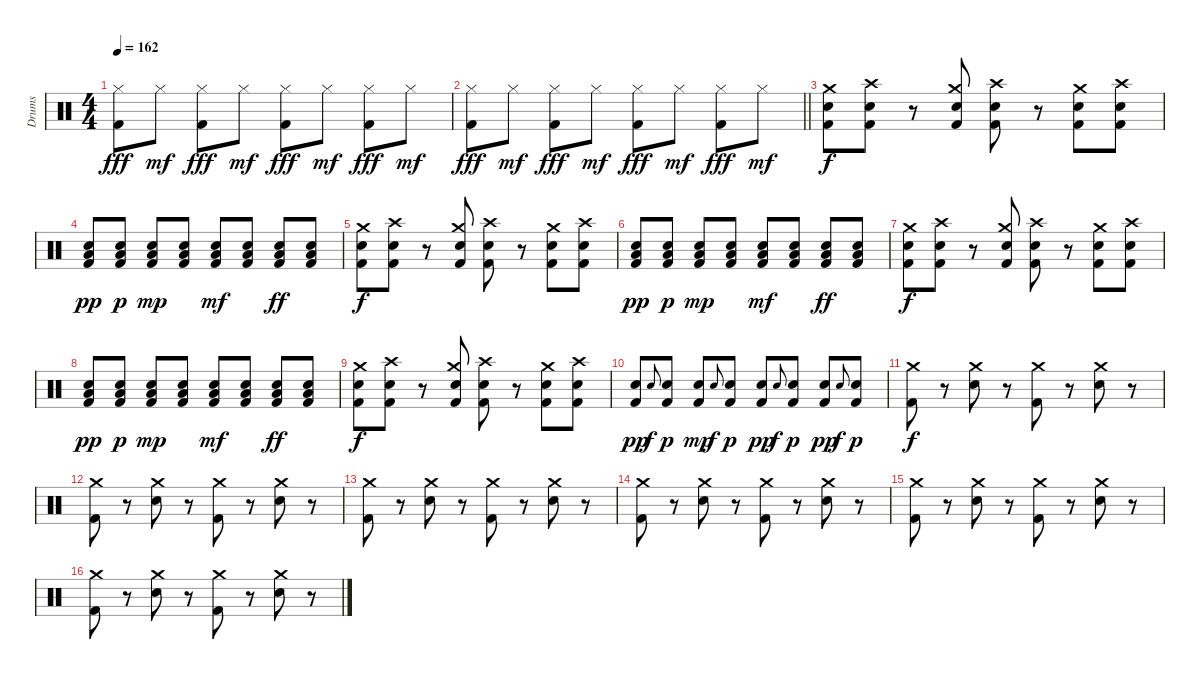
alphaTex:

\track ("Drums" "Drums") {instrument percussion}
\staff {score}
\articulation defaults
\ts (4 4)
\tempo 162
\clef neutral
\ks c
("Hi-Hat (closed)" "Kick (hit) 2").8{dy fff} "Hi-Hat (closed)".8{dy mf} ("Hi-Hat (closed)" "Kick (hit) 2").8{dy fff} "Hi-Hat (closed)".8{dy mf} ("Hi-Hat (closed)" "Kick (hit) 2").8{dy fff} "Hi-Hat (closed)".8{dy mf} ("Hi-Hat (closed)" "Kick (hit) 2").8{dy fff} "Hi-Hat (closed)".8{dy mf} |
\barLineRight lightlight
("Hi-Hat (closed)" "Kick (hit) 2").8{dy fff} "Hi-Hat (closed)".8{dy mf} ("Hi-Hat (closed)" "Kick (hit) 2").8{dy fff} "Hi-Hat (closed)".8{dy mf} ("Hi-Hat (closed)" "Kick (hit) 2").8{dy fff} "Hi-Hat (closed)".8{dy mf} ("Hi-Hat (closed)" "Kick (hit) 2").8{dy fff} "Hi-Hat (closed)".8{dy mf} |
("Crash medium (hit)" "Snare (hit) 2" "Kick (hit) 2").8{dy f} ("Crash high (hit)" "Snare (hit) 2" "Kick (hit) 2").8 r.8 ("Crash medium (hit)" "Snare (hit) 2" "Kick (hit) 2").8 ("Crash high (hit)" "Snare (hit) 2" "Kick (hit) 2").8 r.8 ("Crash medium (hit)" "Snare (hit) 2" "Kick (hit) 2").8 ("Crash high (hit)" "Snare (hit) 2" "Kick (hit) 2").8 |
("Snare (hit) 2" "Low Floor Tom (hit)" "Kick (hit) 2").8{dy pp} ("Snare (hit) 2" "Low Floor Tom (hit)" "Kick (hit) 2").8{dy p} ("Snare (hit) 2" "Low Floor Tom (hit)" "Kick (hit) 2").8{dy mp} ("Snare (hit) 2" "Low Floor Tom (hit)" "Kick (hit) 2").8 ("Snare (hit) 2" "Low Floor Tom (hit)" "Kick (hit) 2").8{dy mf} ("Snare (hit) 2" "Low Floor Tom (hit)" "Kick (hit) 2").8 ("Snare (hit) 2" "Low Floor Tom (hit)" "Kick (hit) 2").8{dy ff} ("Snare (hit) 2" "Low Floor Tom (hit)" "Kick (hit) 2").8 |
("Crash medium (hit)" "Snare (hit) 2" "Kick (hit) 2").8{dy f} ("Crash high (hit)" "Snare (hit) 2" "Kick (hit) 2").8 r.8 ("Crash medium (hit)" "Snare (hit) 2" "Kick (hit) 2").8 ("Crash high (hit)" "Snare (hit) 2" "Kick (hit) 2").8 r.8 ("Crash medium (hit)" "Snare (hit) 2" "Kick (hit) 2").8 ("Crash high (hit)" "Snare (hit) 2" "Kick (hit) 2").8 |
("Snare (hit) 2" "Low Floor Tom (hit)" "Kick (hit) 2").8{dy pp} ("Snare (hit) 2" "Low Floor Tom (hit)" "Kick (hit) 2").8{dy p} ("Snare (hit) 2" "Low Floor Tom (hit)" "Kick (hit) 2").8{dy mp} ("Snare (hit) 2" "Low Floor Tom (hit)" "Kick (hit) 2").8 ("Snare (hit) 2" "Low Floor Tom (hit)" "Kick (hit) 2").8{dy mf} ("Snare (hit) 2" "Low Floor Tom (hit)" "Kick (hit) 2").8 ("Snare (hit) 2" "Low Floor Tom (hit)" "Kick (hit) 2").8{dy ff} ("Snare (hit) 2" "Low Floor Tom (hit)" "Kick (hit) 2").8 |
("Crash medium (hit)" "Snare (hit) 2" "Kick (hit) 2").8{dy f} ("Crash high (hit)" "Snare (hit) 2" "Kick (hit) 2").8 r.8 ("Crash medium (hit)" "Snare (hit) 2" "Kick (hit) 2").8 ("Crash high (hit)" "Snare (hit) 2" "Kick (hit) 2").8 r.8 ("Crash medium (hit)" "Snare (hit) 2" "Kick (hit) 2").8 ("Crash high (hit)" "Snare (hit) 2" "Kick (hit) 2").8 |
("Snare (hit) 2" "Low Floor Tom (hit)" "Kick (hit) 2").8{dy pp} ("Snare (hit) 2" "Low Floor Tom (hit)" "Kick (hit) 2").8{dy p} ("Snare (hit) 2" "Low Floor Tom (hit)" "Kick (hit) 2").8{dy mp} ("Snare (hit) 2" "Low Floor Tom (hit)" "Kick (hit) 2").8 ("Snare (hit) 2" "Low Floor Tom (hit)" "Kick (hit) 2").8{dy mf} ("Snare (hit) 2" "Low Floor Tom (hit)" "Kick (hit) 2").8 ("Snare (hit) 2" "Low Floor Tom (hit)" "Kick (hit) 2").8{dy ff} ("Snare (hit) 2" "Low Floor Tom (hit)" "Kick (hit) 2").8 |
("Crash medium (hit)" "Snare (hit) 2" "Kick (hit) 2").8{dy f} ("Crash high (hit)" "Snare (hit) 2" "Kick (hit) 2").8 r.8 ("Crash medium (hit)" "Snare (hit) 2" "Kick (hit) 2").8 ("Crash high (hit)" "Snare (hit) 2" "Kick (hit) 2").8 r.8 ("Crash medium (hit)" "Snare (hit) 2" "Kick (hit) 2").8 ("Crash high (hit)" "Snare (hit) 2" "Kick (hit) 2").8 |
("Snare (hit) 2" "Kick (hit) 2").8{dy pp} "Snare (hit) 2".8{gr onbeat dy f} ("Snare (hit) 2" "Kick (hit) 2").8{dy p} ("Snare (hit) 2" "Kick (hit) 2").8{dy mp} "Snare (hit) 2".8{gr onbeat dy f} ("Snare (hit) 2" "Kick (hit) 2").8{dy p} ("Snare (hit) 2" "Kick (hit) 2").8{dy pp} "Snare (hit) 2".8{gr onbeat dy f} ("Snare (hit) 2" "Kick (hit) 2").8{dy p} ("Snare (hit) 2" "Kick (hit) 2").8{dy pp} "Snare (hit) 2".8{gr onbeat dy f} ("Snare (hit) 2" "Kick (hit) 2").8{dy p} |
("Crash medium (hit)" "Kick (hit) 2").8{dy f} r.8 ("Crash medium (hit)" "Electric Snare (hit)").8 r.8 ("Crash medium (hit)" "Kick (hit) 2").8 r.8 ("Crash medium (hit)" "Electric Snare (hit)").8 r.8 |
("Crash medium (hit)" "Kick (hit) 2").8 r.8 ("Crash medium (hit)" "Electric Snare (hit)").8 r.8 ("Crash medium (hit)" "Kick (hit) 2").8 r.8 ("Crash medium (hit)" "Electric Snare (hit)").8 r.8 |
("Crash medium (hit)" "Kick (hit) 2").8 r.8 ("Crash medium (hit)" "Electric Snare (hit)").8 r.8 ("Crash medium (hit)" "Kick (hit) 2").8 r.8 ("Crash medium (hit)" "Electric Snare (hit)").8 r.8 |
("Crash medium (hit)" "Kick (hit) 2").8 r.8 ("Crash medium (hit)" "Electric Snare (hit)").8 r.8 ("Crash medium (hit)" "Kick (hit) 2").8 r.8 ("Crash medium (hit)" "Electric Snare (hit)").8 r.8 |
("Crash medium (hit)" "Kick (hit) 2").8 r.8 ("Crash medium (hit)" "Electric Snare (hit)").8 r.8 ("Crash medium (hit)" "Kick (hit) 2").8 r.8 ("Crash medium (hit)" "Electric Snare (hit)").8 r.8 |
("Crash medium (hit)" "Kick (hit) 2").8 r.8 ("Crash medium (hit)" "Electric Snare (hit)").8 r.8 ("Crash medium (hit)" "Kick (hit) 2").8 r.8 ("Crash medium (hit)" "Electric Snare (hit)").8 r.8
